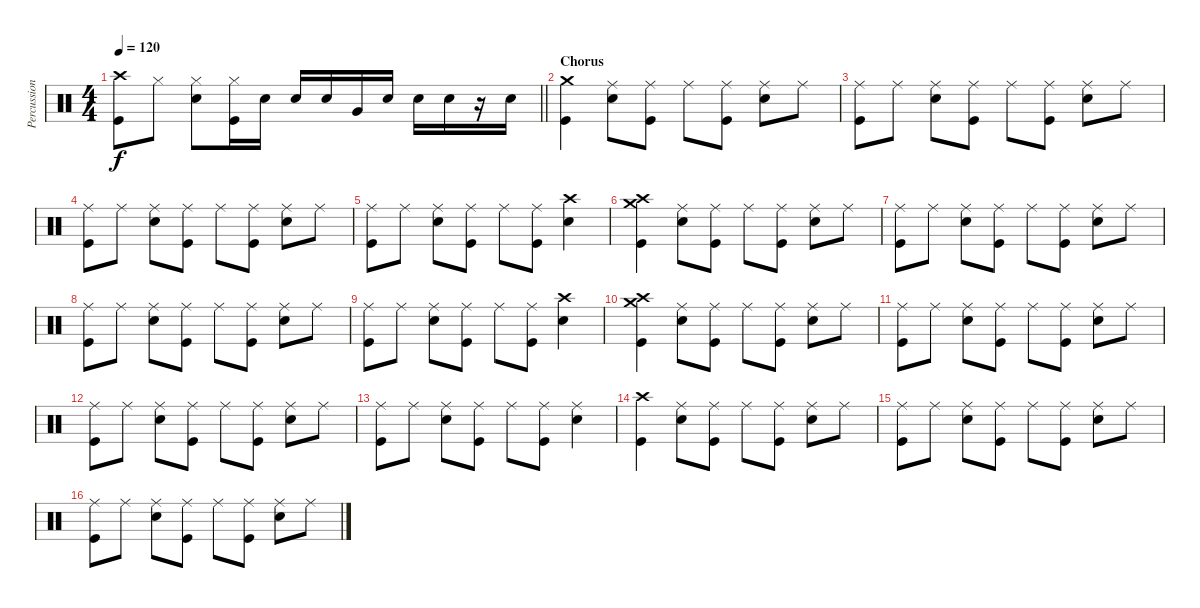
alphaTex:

\track ("Percussion" "Percussion") {instrument percussion}
\staff {score}
\articulation defaults
\ts (4 4)
\tempo 120
\clef neutral
\barLineRight lightlight
\ks c
("Kick (hit)" "Crash high (hit)").8{dy f} "Hi-Hat (closed)".8 ("Hi-Hat (closed)" "Snare (hit) 2").8 ("Kick (hit)" "Hi-Hat (closed)").16 "Snare (hit) 2".16 "Snare (hit) 2".16 "Snare (hit) 2".16 "Very Low Tom (hit)".16 "Snare (hit) 2".16 "Snare (hit) 2".16 "Snare (hit) 2".16 r.16 "Snare (hit) 2".16 |
\section ("" "Chorus")
("Kick (hit)" "Crash medium (hit)").4 ("Ride (middle)" "Snare (hit) 2").8 ("Kick (hit)" "Ride (middle)").8 "Ride (middle)".8 ("Kick (hit)" "Ride (middle)").8 ("Ride (middle)" "Snare (hit) 2").8 "Ride (middle)".8 |
("Kick (hit)" "Ride (middle)").8 "Ride (middle)".8 ("Ride (middle)" "Snare (hit) 2").8 ("Kick (hit)" "Ride (middle)").8 "Ride (middle)".8 ("Kick (hit)" "Ride (middle)").8 ("Ride (middle)" "Snare (hit) 2").8 "Ride (middle)".8 |
("Kick (hit)" "Ride (middle)").8 "Ride (middle)".8 ("Ride (middle)" "Snare (hit) 2").8 ("Kick (hit)" "Ride (middle)").8 "Ride (middle)".8 ("Kick (hit)" "Ride (middle)").8 ("Ride (middle)" "Snare (hit) 2").8 "Ride (middle)".8 |
("Kick (hit)" "Ride (middle)").8 "Ride (middle)".8 ("Ride (middle)" "Snare (hit) 2").8 ("Kick (hit)" "Ride (middle)").8 "Ride (middle)".8 ("Kick (hit)" "Ride (middle)").8 ("Crash high (hit)" "Snare (hit) 2").4 |
("Kick (hit)" "Crash high (hit)" "Crash medium (hit)").4 ("Ride (middle)" "Snare (hit) 2").8 ("Kick (hit)" "Ride (middle)").8 "Ride (middle)".8 ("Kick (hit)" "Ride (middle)").8 ("Ride (middle)" "Snare (hit) 2").8 "Ride (middle)".8 |
("Kick (hit)" "Ride (middle)").8 "Ride (middle)".8 ("Ride (middle)" "Snare (hit) 2").8 ("Kick (hit)" "Ride (middle)").8 "Ride (middle)".8 ("Kick (hit)" "Ride (middle)").8 ("Ride (middle)" "Snare (hit) 2").8 "Ride (middle)".8 |
("Kick (hit)" "Ride (middle)").8 "Ride (middle)".8 ("Ride (middle)" "Snare (hit) 2").8 ("Kick (hit)" "Ride (middle)").8 "Ride (middle)".8 ("Kick (hit)" "Ride (middle)").8 ("Ride (middle)" "Snare (hit) 2").8 "Ride (middle)".8 |
("Kick (hit)" "Ride (middle)").8 "Ride (middle)".8 ("Ride (middle)" "Snare (hit) 2").8 ("Kick (hit)" "Ride (middle)").8 "Ride (middle)".8 ("Kick (hit)" "Ride (middle)").8 ("Crash high (hit)" "Snare (hit) 2").4 |
("Kick (hit)" "Crash high (hit)" "Crash medium (hit)").4 ("Ride (middle)" "Snare (hit) 2").8 ("Kick (hit)" "Ride (middle)").8 "Ride (middle)".8 ("Kick (hit)" "Ride (middle)").8 ("Ride (middle)" "Snare (hit) 2").8 "Ride (middle)".8 |
("Kick (hit)" "Ride (middle)").8 "Ride (middle)".8 ("Ride (middle)" "Snare (hit) 2").8 ("Kick (hit)" "Ride (middle)").8 "Ride (middle)".8 ("Kick (hit)" "Ride (middle)").8 ("Ride (middle)" "Snare (hit) 2").8 "Ride (middle)".8 |
("Kick (hit)" "Ride (middle)").8 "Ride (middle)".8 ("Ride (middle)" "Snare (hit) 2").8 ("Kick (hit)" "Ride (middle)").8 "Ride (middle)".8 ("Kick (hit)" "Ride (middle)").8 ("Ride (middle)" "Snare (hit) 2").8 "Ride (middle)".8 |
("Kick (hit)" "Ride (middle)").8 "Ride (middle)".8 ("Ride (middle)" "Snare (hit) 2").8 ("Kick (hit)" "Ride (middle)").8 "Ride (middle)".8 ("Kick (hit)" "Ride (middle)").8 ("Ride (middle)" "Snare (hit) 2").4 |
("Kick (hit)" "Crash high (hit)").4 ("Ride (middle)" "Snare (hit) 2").8 ("Kick (hit)" "Ride (middle)").8 "Ride (middle)".8 ("Kick (hit)" "Ride (middle)").8 ("Ride (middle)" "Snare (hit) 2").8 "Ride (middle)".8 |
("Kick (hit)" "Ride (middle)").8 "Ride (middle)".8 ("Ride (middle)" "Snare (hit) 2").8 ("Kick (hit)" "Ride (middle)").8 "Ride (middle)".8 ("Kick (hit)" "Ride (middle)").8 ("Ride (middle)" "Snare (hit) 2").8 "Ride (middle)".8 |
("Kick (hit)" "Ride (middle)").8 "Ride (middle)".8 ("Ride (middle)" "Snare (hit) 2").8 ("Kick (hit)" "Ride (middle)").8 "Ride (middle)".8 ("Kick (hit)" "Ride (middle)").8 ("Ride (middle)" "Snare (hit) 2").8 "Ride (middle)".8
